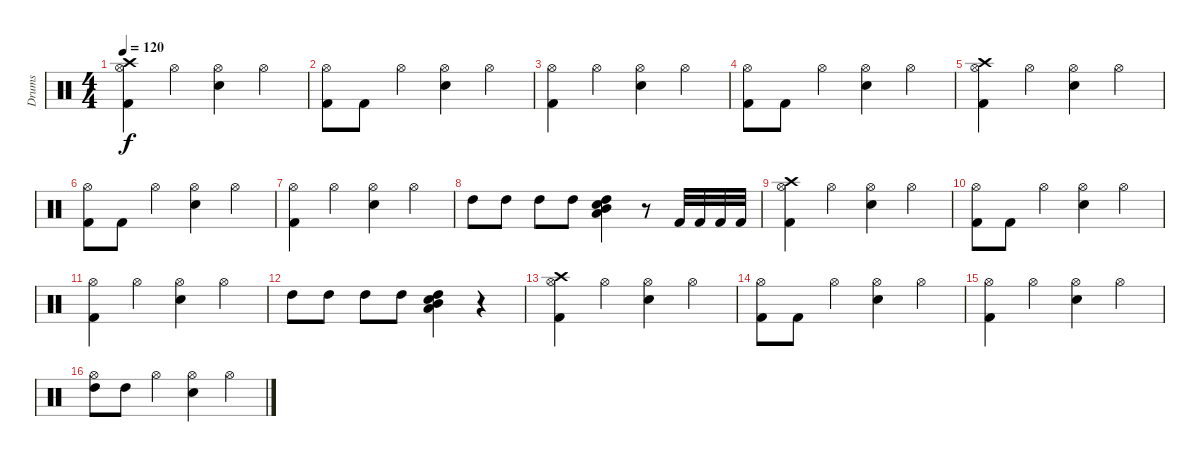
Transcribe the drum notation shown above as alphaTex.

\track ("Drums" "Drums") {instrument percussion}
\staff {score}
\articulation defaults
\ts (4 4)
\tempo 120
\clef neutral
\ks c
("Crash high (hit)" "Hi-Hat (open)" "Kick (hit) 2").4{dy f} "Hi-Hat (open)".4 ("Hi-Hat (open)" "Electric Snare (hit)").4 "Hi-Hat (open)".4 |
("Hi-Hat (open)" "Kick (hit) 2").8 "Kick (hit) 2".8 "Hi-Hat (open)".4 ("Hi-Hat (open)" "Electric Snare (hit)").4 "Hi-Hat (open)".4 |
("Hi-Hat (open)" "Kick (hit) 2").4 "Hi-Hat (open)".4 ("Hi-Hat (open)" "Electric Snare (hit)").4 "Hi-Hat (open)".4 |
("Hi-Hat (open)" "Kick (hit) 2").8 "Kick (hit) 2".8 "Hi-Hat (open)".4 ("Hi-Hat (open)" "Electric Snare (hit)").4 "Hi-Hat (open)".4 |
("Crash high (hit)" "Hi-Hat (open)" "Kick (hit) 2").4 "Hi-Hat (open)".4 ("Hi-Hat (open)" "Electric Snare (hit)").4 "Hi-Hat (open)".4 |
("Hi-Hat (open)" "Kick (hit) 2").8 "Kick (hit) 2".8 "Hi-Hat (open)".4 ("Hi-Hat (open)" "Electric Snare (hit)").4 "Hi-Hat (open)".4 |
("Hi-Hat (open)" "Kick (hit) 2").4 "Hi-Hat (open)".4 ("Hi-Hat (open)" "Electric Snare (hit)").4 "Hi-Hat (open)".4 |
"High Tom (hit)".8{volume 16} "High Tom (hit)".8 "High Tom (hit)".8 "High Tom (hit)".8 ("Electric Snare (hit)" "Low Tom (hit)" "Mid Tom (hit)" "High Tom (hit)").4 r.8 "Kick (hit) 2".32 "Kick (hit) 2".32 "Kick (hit) 2".32 "Kick (hit) 2".32 |
("Crash high (hit)" "Hi-Hat (open)" "Kick (hit) 2").4{volume 16} "Hi-Hat (open)".4 ("Hi-Hat (open)" "Electric Snare (hit)").4 "Hi-Hat (open)".4 |
("Hi-Hat (open)" "Kick (hit) 2").8 "Kick (hit) 2".8 "Hi-Hat (open)".4 ("Hi-Hat (open)" "Electric Snare (hit)").4 "Hi-Hat (open)".4 |
("Hi-Hat (open)" "Kick (hit) 2").4 "Hi-Hat (open)".4 ("Hi-Hat (open)" "Electric Snare (hit)").4 "Hi-Hat (open)".4 |
"High Tom (hit)".8 "High Tom (hit)".8 "High Tom (hit)".8 "High Tom (hit)".8 ("Electric Snare (hit)" "Low Tom (hit)" "Mid Tom (hit)" "High Tom (hit)").4 r.4 |
("Crash high (hit)" "Hi-Hat (open)" "Kick (hit) 2").4 "Hi-Hat (open)".4 ("Hi-Hat (open)" "Electric Snare (hit)").4 "Hi-Hat (open)".4 |
("Hi-Hat (open)" "Kick (hit) 2").8 "Kick (hit) 2".8 "Hi-Hat (open)".4 ("Hi-Hat (open)" "Electric Snare (hit)").4 "Hi-Hat (open)".4 |
("Hi-Hat (open)" "Kick (hit) 2").4 "Hi-Hat (open)".4 ("Hi-Hat (open)" "Electric Snare (hit)").4 "Hi-Hat (open)".4 |
("Hi-Hat (open)" "High Tom (hit)").8 "High Tom (hit)".8 "Hi-Hat (open)".4 ("Hi-Hat (open)" "Electric Snare (hit)").4 "Hi-Hat (open)".4
